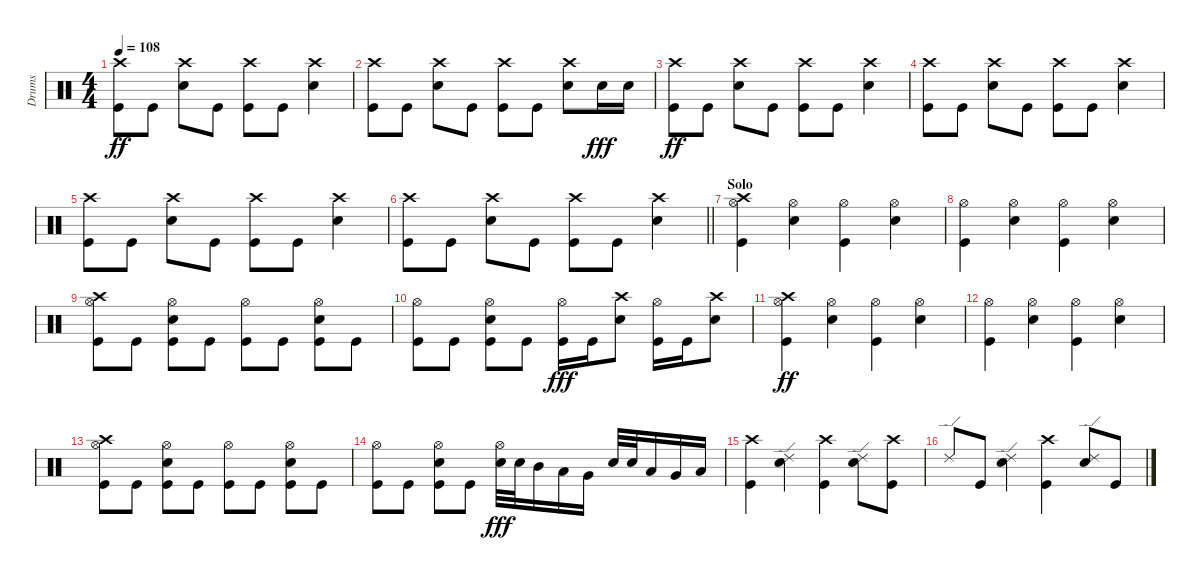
\track ("Drums" "Drums") {instrument percussion}
\staff {score}
\articulation defaults
\ts (4 4)
\tempo 108
\clef neutral
\ks c
("Crash high (hit)" "Kick (hit)").8{dy ff} "Kick (hit)".8 ("Crash high (hit)" "Snare (hit) 2").8 "Kick (hit)".8 ("Crash high (hit)" "Kick (hit)").8 "Kick (hit)".8 ("Crash high (hit)" "Snare (hit) 2").4 |
("Crash high (hit)" "Kick (hit)").8 "Kick (hit)".8 ("Crash high (hit)" "Snare (hit) 2").8 "Kick (hit)".8 ("Crash high (hit)" "Kick (hit)").8 "Kick (hit)".8 ("Crash high (hit)" "Snare (hit) 2").8 "Snare (hit) 2".16{dy fff} "Snare (hit) 2".16 |
("Crash high (hit)" "Kick (hit)").8{dy ff} "Kick (hit)".8 ("Crash high (hit)" "Snare (hit) 2").8 "Kick (hit)".8 ("Crash high (hit)" "Kick (hit)").8 "Kick (hit)".8 ("Crash high (hit)" "Snare (hit) 2").4 |
("Crash high (hit)" "Kick (hit)").8 "Kick (hit)".8 ("Crash high (hit)" "Snare (hit) 2").8 "Kick (hit)".8 ("Crash high (hit)" "Kick (hit)").8 "Kick (hit)".8 ("Crash high (hit)" "Snare (hit) 2").4 |
("Crash high (hit)" "Kick (hit)").8 "Kick (hit)".8 ("Crash high (hit)" "Snare (hit) 2").8 "Kick (hit)".8 ("Crash high (hit)" "Kick (hit)").8 "Kick (hit)".8 ("Crash high (hit)" "Snare (hit) 2").4 |
\barLineRight lightlight
("Crash high (hit)" "Kick (hit)").8 "Kick (hit)".8 ("Crash high (hit)" "Snare (hit) 2").8 "Kick (hit)".8 ("Crash high (hit)" "Kick (hit)").8 "Kick (hit)".8 ("Crash high (hit)" "Snare (hit) 2").4 |
\section ("" "Solo")
("Crash high (hit)" "Hi-Hat (open)" "Kick (hit)").4 ("Hi-Hat (open)" "Snare (hit) 2").4 ("Hi-Hat (open)" "Kick (hit)").4 ("Hi-Hat (open)" "Snare (hit) 2").4 |
("Hi-Hat (open)" "Kick (hit)").4 ("Hi-Hat (open)" "Snare (hit) 2").4 ("Hi-Hat (open)" "Kick (hit)").4 ("Hi-Hat (open)" "Snare (hit) 2").4 |
("Crash high (hit)" "Hi-Hat (open)" "Kick (hit)").8 "Kick (hit)".8 ("Hi-Hat (open)" "Snare (hit) 2" "Kick (hit)").8 "Kick (hit)".8 ("Hi-Hat (open)" "Kick (hit)").8 "Kick (hit)".8 ("Hi-Hat (open)" "Snare (hit) 2" "Kick (hit)").8 "Kick (hit)".8 |
("Hi-Hat (open)" "Kick (hit)").8 "Kick (hit)".8 ("Hi-Hat (open)" "Snare (hit) 2" "Kick (hit)").8 "Kick (hit)".8 ("Hi-Hat (open)" "Kick (hit)").16{dy fff} "Kick (hit)".16 ("Crash high (hit)" "Snare (hit) 2").8 ("Hi-Hat (open)" "Kick (hit)").16 "Kick (hit)".16 ("Crash high (hit)" "Snare (hit) 2").8 |
("Crash high (hit)" "Hi-Hat (open)" "Kick (hit)").4{dy ff} ("Hi-Hat (open)" "Snare (hit) 2").4 ("Hi-Hat (open)" "Kick (hit)").4 ("Hi-Hat (open)" "Snare (hit) 2").4 |
("Hi-Hat (open)" "Kick (hit)").4 ("Hi-Hat (open)" "Snare (hit) 2").4 ("Hi-Hat (open)" "Kick (hit)").4 ("Hi-Hat (open)" "Snare (hit) 2").4 |
("Crash high (hit)" "Hi-Hat (open)" "Kick (hit)").8 "Kick (hit)".8 ("Hi-Hat (open)" "Snare (hit) 2" "Kick (hit)").8 "Kick (hit)".8 ("Hi-Hat (open)" "Kick (hit)").8 "Kick (hit)".8 ("Hi-Hat (open)" "Snare (hit) 2" "Kick (hit)").8 "Kick (hit)".8 |
("Hi-Hat (open)" "Kick (hit)").8 "Kick (hit)".8 ("Hi-Hat (open)" "Snare (hit) 2" "Kick (hit)").8 "Kick (hit)".8 ("Hi-Hat (open)" "Snare (hit) 2").32{dy fff} "Snare (hit) 2".32 "Mid Tom (hit)".16 "Low Tom (hit)".16 "Very Low Tom (hit)".16 "Snare (hit) 2".32 "Snare (hit) 2".32 "Low Tom (hit)".16 "Very Low Tom (hit)".16 "Low Floor Tom (hit)".16 |
("Crash high (hit)" "Kick (hit)").4 ("Ride (edge) 2" "Snare (hit) 2").4 ("Crash high (hit)" "Kick (hit)").4 ("Ride (edge) 2" "Snare (hit) 2").8 ("Crash high (hit)" "Kick (hit)").8 |
"Ride (edge) 2".8 "Kick (hit)".8 ("Ride (edge) 2" "Snare (hit) 2").4 ("Crash high (hit)" "Kick (hit)").4 ("Ride (edge) 2" "Snare (hit) 2").8 "Kick (hit)".8
